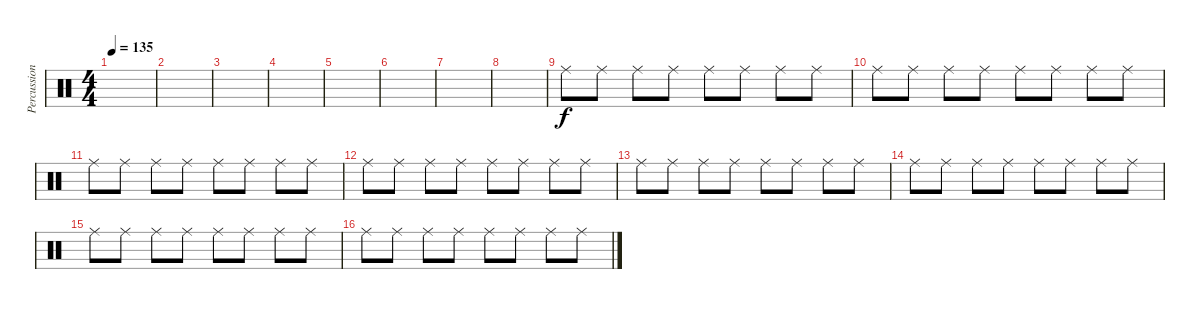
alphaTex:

\track ("Percussion" "Percussion") {instrument percussion}
\staff {score}
\articulation defaults
\ts (4 4)
\tempo 135
\clef neutral
\ks c
|
|
|
|
|
|
|
|
"Ride (middle)".8 "Ride (middle)".8 "Ride (middle)".8 "Ride (middle)".8 "Ride (middle)".8 "Ride (middle)".8 "Ride (middle)".8 "Ride (middle)".8 |
"Ride (middle)".8 "Ride (middle)".8 "Ride (middle)".8 "Ride (middle)".8 "Ride (middle)".8 "Ride (middle)".8 "Ride (middle)".8 "Ride (middle)".8 |
"Ride (middle)".8 "Ride (middle)".8 "Ride (middle)".8 "Ride (middle)".8 "Ride (middle)".8 "Ride (middle)".8 "Ride (middle)".8 "Ride (middle)".8 |
"Ride (middle)".8 "Ride (middle)".8 "Ride (middle)".8 "Ride (middle)".8 "Ride (middle)".8 "Ride (middle)".8 "Ride (middle)".8 "Ride (middle)".8 |
"Ride (middle)".8 "Ride (middle)".8 "Ride (middle)".8 "Ride (middle)".8 "Ride (middle)".8 "Ride (middle)".8 "Ride (middle)".8 "Ride (middle)".8 |
"Ride (middle)".8 "Ride (middle)".8 "Ride (middle)".8 "Ride (middle)".8 "Ride (middle)".8 "Ride (middle)".8 "Ride (middle)".8 "Ride (middle)".8 |
"Ride (middle)".8 "Ride (middle)".8 "Ride (middle)".8 "Ride (middle)".8 "Ride (middle)".8 "Ride (middle)".8 "Ride (middle)".8 "Ride (middle)".8 |
"Ride (middle)".8 "Ride (middle)".8 "Ride (middle)".8 "Ride (middle)".8 "Ride (middle)".8 "Ride (middle)".8 "Ride (middle)".8 "Ride (middle)".8
